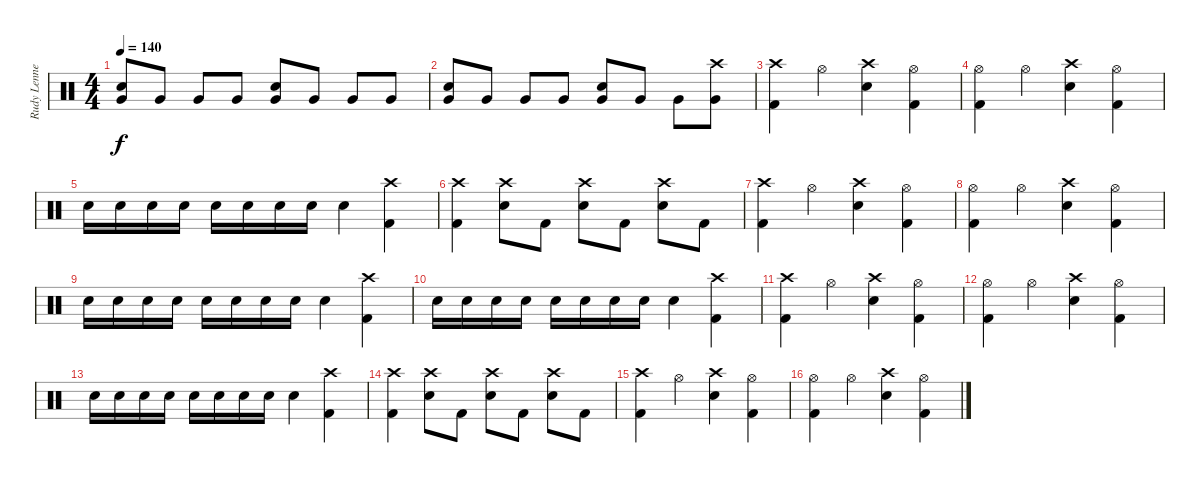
\track ("Rudy Lenners" "Rudy Lenne") {instrument percussion}
\staff {score}
\articulation defaults
\ts (4 4)
\tempo 140
\clef neutral
\ks c
("Snare (hit) 2" "Very Low Tom (hit)").8{dy f} "Very Low Tom (hit)".8 "Very Low Tom (hit)".8 "Very Low Tom (hit)".8 ("Snare (hit) 2" "Very Low Tom (hit)").8 "Very Low Tom (hit)".8 "Very Low Tom (hit)".8 "Very Low Tom (hit)".8 |
("Snare (hit) 2" "Very Low Tom (hit)").8 "Very Low Tom (hit)".8 "Very Low Tom (hit)".8 "Very Low Tom (hit)".8 ("Snare (hit) 2" "Very Low Tom (hit)").8 "Very Low Tom (hit)".8 "Very Low Tom (hit)".8 ("Crash high (hit)" "Very Low Tom (hit)").8 |
("Crash high (hit)" "Kick (hit) 2").4 "Hi-Hat (open)".4 ("Crash high (hit)" "Snare (hit) 2").4 ("Hi-Hat (open)" "Kick (hit) 2").4 |
("Hi-Hat (open)" "Kick (hit) 2").4 "Hi-Hat (open)".4 ("Crash high (hit)" "Snare (hit) 2").4 ("Hi-Hat (open)" "Kick (hit) 2").4 |
"Snare (hit) 2".16 "Snare (hit) 2".16 "Snare (hit) 2".16 "Snare (hit) 2".16 "Snare (hit) 2".16 "Snare (hit) 2".16 "Snare (hit) 2".16 "Snare (hit) 2".16 "Snare (hit) 2".4 ("Crash high (hit)" "Kick (hit) 2").4 |
("Crash high (hit)" "Kick (hit) 2").4 ("Snare (hit) 2" "Crash high (hit)").8 "Kick (hit) 2".8 ("Crash high (hit)" "Snare (hit) 2").8 "Kick (hit) 2".8 ("Crash high (hit)" "Snare (hit) 2").8 "Kick (hit) 2".8 |
("Crash high (hit)" "Kick (hit) 2").4 "Hi-Hat (open)".4 ("Crash high (hit)" "Snare (hit) 2").4 ("Hi-Hat (open)" "Kick (hit) 2").4 |
("Hi-Hat (open)" "Kick (hit) 2").4 "Hi-Hat (open)".4 ("Crash high (hit)" "Snare (hit) 2").4 ("Hi-Hat (open)" "Kick (hit) 2").4 |
"Snare (hit) 2".16 "Snare (hit) 2".16 "Snare (hit) 2".16 "Snare (hit) 2".16 "Snare (hit) 2".16 "Snare (hit) 2".16 "Snare (hit) 2".16 "Snare (hit) 2".16 "Snare (hit) 2".4 ("Crash high (hit)" "Kick (hit) 2").4 |
"Snare (hit) 2".16 "Snare (hit) 2".16 "Snare (hit) 2".16 "Snare (hit) 2".16 "Snare (hit) 2".16 "Snare (hit) 2".16 "Snare (hit) 2".16 "Snare (hit) 2".16 "Snare (hit) 2".4 ("Crash high (hit)" "Kick (hit) 2").4 |
("Crash high (hit)" "Kick (hit) 2").4 "Hi-Hat (open)".4 ("Crash high (hit)" "Snare (hit) 2").4 ("Hi-Hat (open)" "Kick (hit) 2").4 |
("Hi-Hat (open)" "Kick (hit) 2").4 "Hi-Hat (open)".4 ("Crash high (hit)" "Snare (hit) 2").4 ("Hi-Hat (open)" "Kick (hit) 2").4 |
"Snare (hit) 2".16 "Snare (hit) 2".16 "Snare (hit) 2".16 "Snare (hit) 2".16 "Snare (hit) 2".16 "Snare (hit) 2".16 "Snare (hit) 2".16 "Snare (hit) 2".16 "Snare (hit) 2".4 ("Crash high (hit)" "Kick (hit) 2").4 |
("Crash high (hit)" "Kick (hit) 2").4 ("Snare (hit) 2" "Crash high (hit)").8 "Kick (hit) 2".8 ("Crash high (hit)" "Snare (hit) 2").8 "Kick (hit) 2".8 ("Crash high (hit)" "Snare (hit) 2").8 "Kick (hit) 2".8 |
("Crash high (hit)" "Kick (hit) 2").4 "Hi-Hat (open)".4 ("Crash high (hit)" "Snare (hit) 2").4 ("Hi-Hat (open)" "Kick (hit) 2").4 |
("Hi-Hat (open)" "Kick (hit) 2").4 "Hi-Hat (open)".4 ("Crash high (hit)" "Snare (hit) 2").4 ("Hi-Hat (open)" "Kick (hit) 2").4
